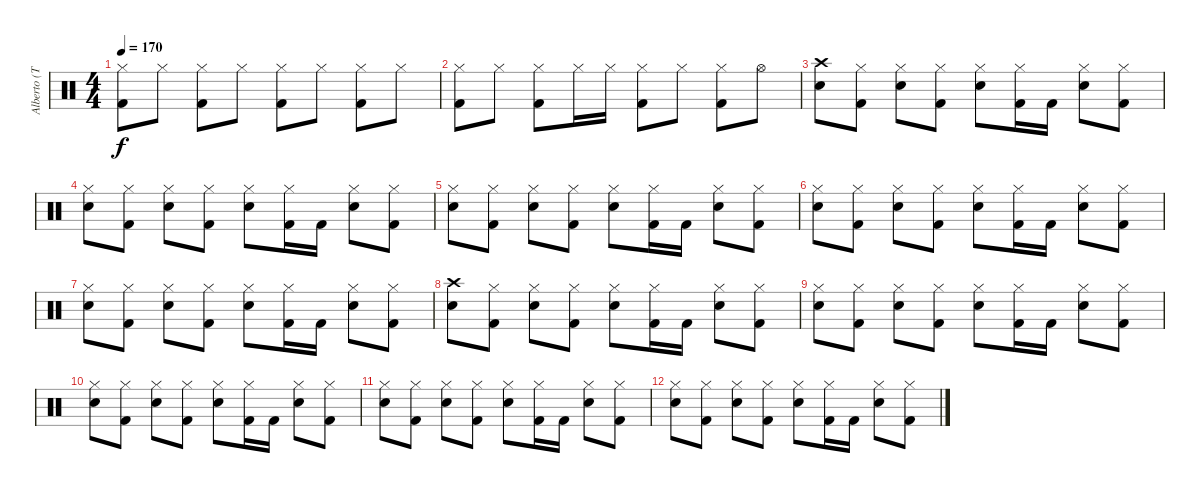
\track ("Alberto (Toshi)" "Alberto (T") {instrument percussion}
\staff {score}
\articulation defaults
\ts (4 4)
\tempo 170
\clef neutral
\ks c
("Hi-Hat (closed)" "Kick (hit) 2").8{dy f} "Hi-Hat (closed)".8 ("Hi-Hat (closed)" "Kick (hit) 2").8 "Hi-Hat (closed)".8 ("Hi-Hat (closed)" "Kick (hit) 2").8 "Hi-Hat (closed)".8 ("Hi-Hat (closed)" "Kick (hit) 2").8 "Hi-Hat (closed)".8 |
("Hi-Hat (closed)" "Kick (hit) 2").8 "Hi-Hat (closed)".8 ("Hi-Hat (closed)" "Kick (hit) 2").8 "Hi-Hat (closed)".16 "Hi-Hat (closed)".16 ("Hi-Hat (closed)" "Kick (hit) 2").8 "Hi-Hat (closed)".8 ("Hi-Hat (closed)" "Kick (hit) 2").8 "Hi-Hat (open)".8 |
("Crash high (hit)" "Snare (hit) 2").8 ("Hi-Hat (closed)" "Kick (hit) 2").8 ("Hi-Hat (closed)" "Snare (hit) 2").8 ("Hi-Hat (closed)" "Kick (hit) 2").8 ("Hi-Hat (closed)" "Snare (hit) 2").8 ("Hi-Hat (closed)" "Kick (hit) 2").16 "Kick (hit) 2".16 ("Hi-Hat (closed)" "Snare (hit) 2").8 ("Hi-Hat (closed)" "Kick (hit) 2").8 |
("Hi-Hat (closed)" "Snare (hit) 2").8 ("Hi-Hat (closed)" "Kick (hit) 2").8 ("Hi-Hat (closed)" "Snare (hit) 2").8 ("Hi-Hat (closed)" "Kick (hit) 2").8 ("Hi-Hat (closed)" "Snare (hit) 2").8 ("Hi-Hat (closed)" "Kick (hit) 2").16 "Kick (hit) 2".16 ("Hi-Hat (closed)" "Snare (hit) 2").8 ("Hi-Hat (closed)" "Kick (hit) 2").8 |
("Hi-Hat (closed)" "Snare (hit) 2").8 ("Hi-Hat (closed)" "Kick (hit) 2").8 ("Hi-Hat (closed)" "Snare (hit) 2").8 ("Hi-Hat (closed)" "Kick (hit) 2").8 ("Hi-Hat (closed)" "Snare (hit) 2").8 ("Hi-Hat (closed)" "Kick (hit) 2").16 "Kick (hit) 2".16 ("Hi-Hat (closed)" "Snare (hit) 2").8 ("Hi-Hat (closed)" "Kick (hit) 2").8 |
("Hi-Hat (closed)" "Snare (hit) 2").8 ("Hi-Hat (closed)" "Kick (hit) 2").8 ("Hi-Hat (closed)" "Snare (hit) 2").8 ("Hi-Hat (closed)" "Kick (hit) 2").8 ("Hi-Hat (closed)" "Snare (hit) 2").8 ("Hi-Hat (closed)" "Kick (hit) 2").16 "Kick (hit) 2".16 ("Hi-Hat (closed)" "Snare (hit) 2").8 ("Hi-Hat (closed)" "Kick (hit) 2").8 |
("Hi-Hat (closed)" "Snare (hit) 2").8 ("Hi-Hat (closed)" "Kick (hit) 2").8 ("Hi-Hat (closed)" "Snare (hit) 2").8 ("Hi-Hat (closed)" "Kick (hit) 2").8 ("Hi-Hat (closed)" "Snare (hit) 2").8 ("Hi-Hat (closed)" "Kick (hit) 2").16 "Kick (hit) 2".16 ("Hi-Hat (closed)" "Snare (hit) 2").8 ("Hi-Hat (closed)" "Kick (hit) 2").8 |
("Crash high (hit)" "Snare (hit) 2").8 ("Hi-Hat (closed)" "Kick (hit) 2").8 ("Hi-Hat (closed)" "Snare (hit) 2").8 ("Hi-Hat (closed)" "Kick (hit) 2").8 ("Hi-Hat (closed)" "Snare (hit) 2").8 ("Hi-Hat (closed)" "Kick (hit) 2").16 "Kick (hit) 2".16 ("Hi-Hat (closed)" "Snare (hit) 2").8 ("Hi-Hat (closed)" "Kick (hit) 2").8 |
("Hi-Hat (closed)" "Snare (hit) 2").8 ("Hi-Hat (closed)" "Kick (hit) 2").8 ("Hi-Hat (closed)" "Snare (hit) 2").8 ("Hi-Hat (closed)" "Kick (hit) 2").8 ("Hi-Hat (closed)" "Snare (hit) 2").8 ("Hi-Hat (closed)" "Kick (hit) 2").16 "Kick (hit) 2".16 ("Hi-Hat (closed)" "Snare (hit) 2").8 ("Hi-Hat (closed)" "Kick (hit) 2").8 |
("Hi-Hat (closed)" "Snare (hit) 2").8 ("Hi-Hat (closed)" "Kick (hit) 2").8 ("Hi-Hat (closed)" "Snare (hit) 2").8 ("Hi-Hat (closed)" "Kick (hit) 2").8 ("Hi-Hat (closed)" "Snare (hit) 2").8 ("Hi-Hat (closed)" "Kick (hit) 2").16 "Kick (hit) 2".16 ("Hi-Hat (closed)" "Snare (hit) 2").8 ("Hi-Hat (closed)" "Kick (hit) 2").8 |
("Hi-Hat (closed)" "Snare (hit) 2").8 ("Hi-Hat (closed)" "Kick (hit) 2").8 ("Hi-Hat (closed)" "Snare (hit) 2").8 ("Hi-Hat (closed)" "Kick (hit) 2").8 ("Hi-Hat (closed)" "Snare (hit) 2").8 ("Hi-Hat (closed)" "Kick (hit) 2").16 "Kick (hit) 2".16 ("Hi-Hat (closed)" "Snare (hit) 2").8 ("Hi-Hat (closed)" "Kick (hit) 2").8 |
("Hi-Hat (closed)" "Snare (hit) 2").8 ("Hi-Hat (closed)" "Kick (hit) 2").8 ("Hi-Hat (closed)" "Snare (hit) 2").8 ("Hi-Hat (closed)" "Kick (hit) 2").8 ("Hi-Hat (closed)" "Snare (hit) 2").8 ("Hi-Hat (closed)" "Kick (hit) 2").16 "Kick (hit) 2".16 ("Hi-Hat (closed)" "Snare (hit) 2").8 ("Hi-Hat (closed)" "Kick (hit) 2").8
